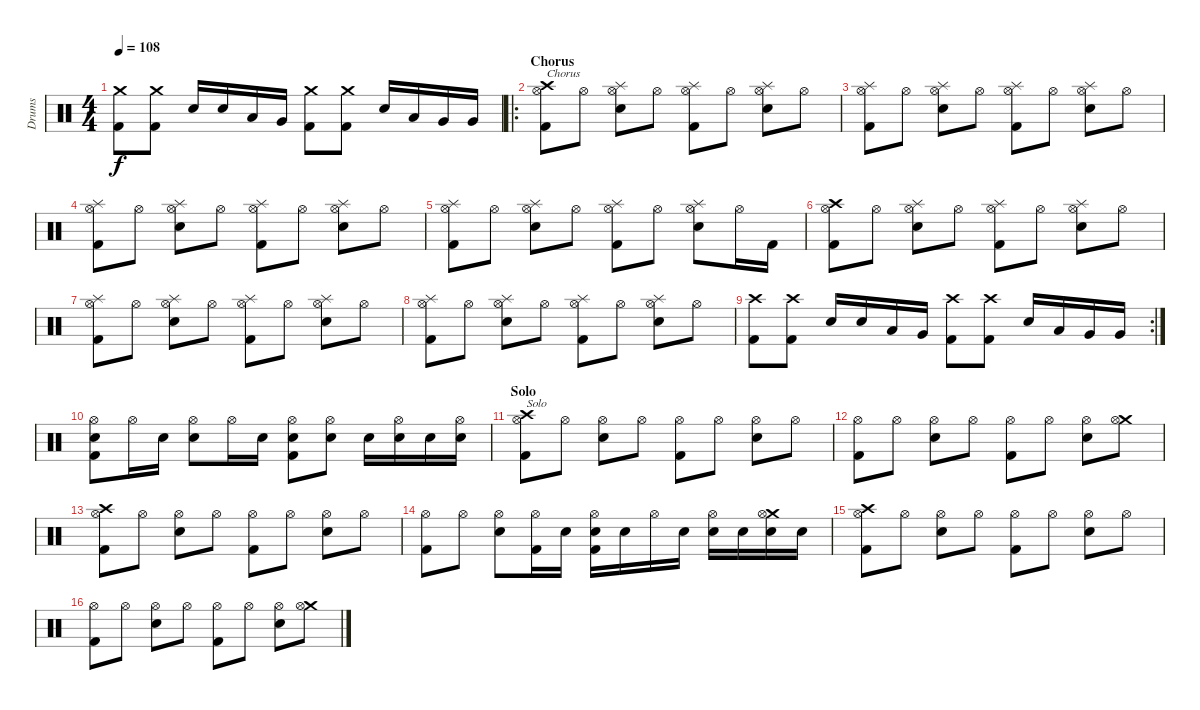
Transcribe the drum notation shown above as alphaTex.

\track ("Drums" "Drums") {instrument percussion}
\staff {score}
\articulation defaults
\ts (4 4)
\tempo 108
\clef neutral
\ks c
("Crash medium (hit)" "Kick (hit) 2").8{dy f} ("Crash medium (hit)" "Kick (hit) 2").8 "Snare (hit) 2".16 "Snare (hit) 2".16 "Low Tom (hit)".16 "Very Low Tom (hit)".16 ("Crash medium (hit)" "Kick (hit) 2").8 ("Crash medium (hit)" "Kick (hit) 2").8 "Snare (hit) 2".16 "Low Tom (hit)".16 "Very Low Tom (hit)".16 "Very Low Tom (hit)".16 |
\ro
\section ("" "Chorus")
("Crash high (hit)" "Hi-Hat (open)" "Kick (hit) 2").8{txt "Chorus"} "Hi-Hat (open)".8 ("Splash (hit)" "Hi-Hat (open)" "Snare (hit) 2").8 "Hi-Hat (open)".8 ("Splash (hit)" "Hi-Hat (open)" "Kick (hit) 2").8 "Hi-Hat (open)".8 ("Splash (hit)" "Hi-Hat (open)" "Snare (hit) 2").8 "Hi-Hat (open)".8 |
("Splash (hit)" "Hi-Hat (open)" "Kick (hit) 2").8 "Hi-Hat (open)".8 ("Splash (hit)" "Hi-Hat (open)" "Snare (hit) 2").8 "Hi-Hat (open)".8 ("Splash (hit)" "Hi-Hat (open)" "Kick (hit) 2").8 "Hi-Hat (open)".8 ("Splash (hit)" "Hi-Hat (open)" "Snare (hit) 2").8 "Hi-Hat (open)".8 |
("Splash (hit)" "Hi-Hat (open)" "Kick (hit) 2").8 "Hi-Hat (open)".8 ("Splash (hit)" "Hi-Hat (open)" "Snare (hit) 2").8 "Hi-Hat (open)".8 ("Splash (hit)" "Hi-Hat (open)" "Kick (hit) 2").8 "Hi-Hat (open)".8 ("Splash (hit)" "Hi-Hat (open)" "Snare (hit) 2").8 "Hi-Hat (open)".8 |
("Splash (hit)" "Hi-Hat (open)" "Kick (hit) 2").8 "Hi-Hat (open)".8 ("Splash (hit)" "Hi-Hat (open)" "Snare (hit) 2").8 "Hi-Hat (open)".8 ("Splash (hit)" "Hi-Hat (open)" "Kick (hit) 2").8 "Hi-Hat (open)".8 ("Splash (hit)" "Hi-Hat (open)" "Snare (hit) 2").8 "Hi-Hat (open)".16 "Kick (hit) 2".16 |
("Crash high (hit)" "Hi-Hat (open)" "Kick (hit) 2").8 "Hi-Hat (open)".8 ("Splash (hit)" "Hi-Hat (open)" "Snare (hit) 2").8 "Hi-Hat (open)".8 ("Splash (hit)" "Hi-Hat (open)" "Kick (hit) 2").8 "Hi-Hat (open)".8 ("Splash (hit)" "Hi-Hat (open)" "Snare (hit) 2").8 "Hi-Hat (open)".8 |
("Splash (hit)" "Hi-Hat (open)" "Kick (hit) 2").8 "Hi-Hat (open)".8 ("Splash (hit)" "Hi-Hat (open)" "Snare (hit) 2").8 "Hi-Hat (open)".8 ("Splash (hit)" "Hi-Hat (open)" "Kick (hit) 2").8 "Hi-Hat (open)".8 ("Splash (hit)" "Hi-Hat (open)" "Snare (hit) 2").8 "Hi-Hat (open)".8 |
("Splash (hit)" "Hi-Hat (open)" "Kick (hit) 2").8 "Hi-Hat (open)".8 ("Splash (hit)" "Hi-Hat (open)" "Snare (hit) 2").8 "Hi-Hat (open)".8 ("Splash (hit)" "Hi-Hat (open)" "Kick (hit) 2").8 "Hi-Hat (open)".8 ("Splash (hit)" "Hi-Hat (open)" "Snare (hit) 2").8 "Hi-Hat (open)".8 |
\rc 2
("Crash high (hit)" "Kick (hit) 2").8 ("Crash high (hit)" "Kick (hit) 2").8 "Snare (hit) 2".16 "Snare (hit) 2".16 "Low Tom (hit)".16 "Very Low Tom (hit)".16 ("Crash high (hit)" "Kick (hit) 2").8 ("Crash high (hit)" "Kick (hit) 2").8 "Snare (hit) 2".16 "Low Tom (hit)".16 "Very Low Tom (hit)".16 "Very Low Tom (hit)".16 |
("Hi-Hat (open)" "Snare (hit) 2" "Kick (hit) 2").8 "Hi-Hat (open)".16 "Snare (hit) 2".16 ("Hi-Hat (open)" "Snare (hit) 2").8 "Hi-Hat (open)".16 "Snare (hit) 2".16 ("Hi-Hat (open)" "Snare (hit) 2" "Kick (hit) 2").8 ("Hi-Hat (open)" "Snare (hit) 2").8 "Snare (hit) 2".16 ("Hi-Hat (open)" "Snare (hit) 2").16 "Snare (hit) 2".16 ("Hi-Hat (open)" "Snare (hit) 2").16 |
\section ("" "Solo")
("Crash high (hit)" "Hi-Hat (open)" "Kick (hit) 2").8{txt "Solo"} "Hi-Hat (open)".8 ("Hi-Hat (open)" "Snare (hit) 2").8 "Hi-Hat (open)".8 ("Hi-Hat (open)" "Kick (hit) 2").8 "Hi-Hat (open)".8 ("Hi-Hat (open)" "Snare (hit) 2").8 "Hi-Hat (open)".8 |
("Hi-Hat (open)" "Kick (hit) 2").8 "Hi-Hat (open)".8 ("Hi-Hat (open)" "Snare (hit) 2").8 "Hi-Hat (open)".8 ("Hi-Hat (open)" "Kick (hit) 2").8 "Hi-Hat (open)".8 ("Hi-Hat (open)" "Snare (hit) 2").8 ("Crash medium (hit)" "Hi-Hat (open)").8 |
("Crash high (hit)" "Hi-Hat (open)" "Kick (hit) 2").8 "Hi-Hat (open)".8 ("Hi-Hat (open)" "Snare (hit) 2").8 "Hi-Hat (open)".8 ("Hi-Hat (open)" "Kick (hit) 2").8 "Hi-Hat (open)".8 ("Hi-Hat (open)" "Snare (hit) 2").8 "Hi-Hat (open)".8 |
("Hi-Hat (open)" "Kick (hit) 2").8 "Hi-Hat (open)".8 ("Hi-Hat (open)" "Snare (hit) 2").8 ("Hi-Hat (open)" "Kick (hit) 2").16 "Snare (hit) 2".16 ("Hi-Hat (open)" "Snare (hit) 2" "Kick (hit) 2").16 "Snare (hit) 2".16 "Hi-Hat (open)".16 "Snare (hit) 2".16 ("Hi-Hat (open)" "Snare (hit) 2").16 "Snare (hit) 2".16 ("Crash medium (hit)" "Hi-Hat (open)" "Snare (hit) 2").16 "Snare (hit) 2".16 |
("Crash high (hit)" "Hi-Hat (open)" "Kick (hit) 2").8 "Hi-Hat (open)".8 ("Hi-Hat (open)" "Snare (hit) 2").8 "Hi-Hat (open)".8 ("Hi-Hat (open)" "Kick (hit) 2").8 "Hi-Hat (open)".8 ("Hi-Hat (open)" "Snare (hit) 2").8 "Hi-Hat (open)".8 |
("Hi-Hat (open)" "Kick (hit) 2").8 "Hi-Hat (open)".8 ("Hi-Hat (open)" "Snare (hit) 2").8 "Hi-Hat (open)".8 ("Hi-Hat (open)" "Kick (hit) 2").8 "Hi-Hat (open)".8 ("Hi-Hat (open)" "Snare (hit) 2").8 ("Crash medium (hit)" "Hi-Hat (open)").8
